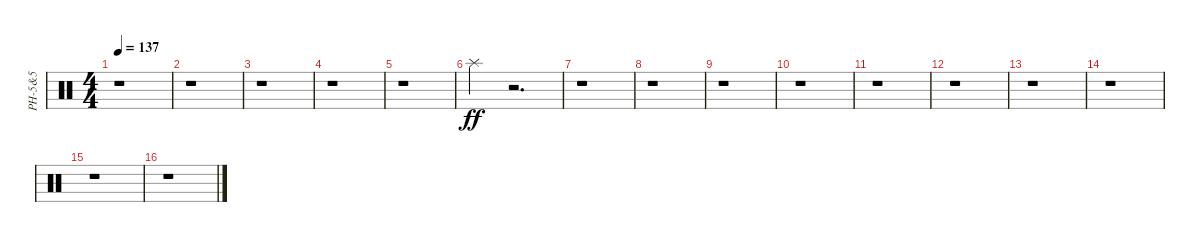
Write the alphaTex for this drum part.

\track ("PH-5&5" "PH-5&5") {instrument percussion}
\staff {score}
\articulation defaults
\ts (4 4)
\tempo 137
\clef neutral
\ks c
r.1{dy f} |
r.1 |
r.1 |
r.1 |
r.1 |
"Splash (hit)".4{dy ff} r.2{d} |
r.1 |
r.1 |
r.1 |
r.1 |
r.1 |
r.1 |
r.1 |
r.1 |
r.1 |
r.1
